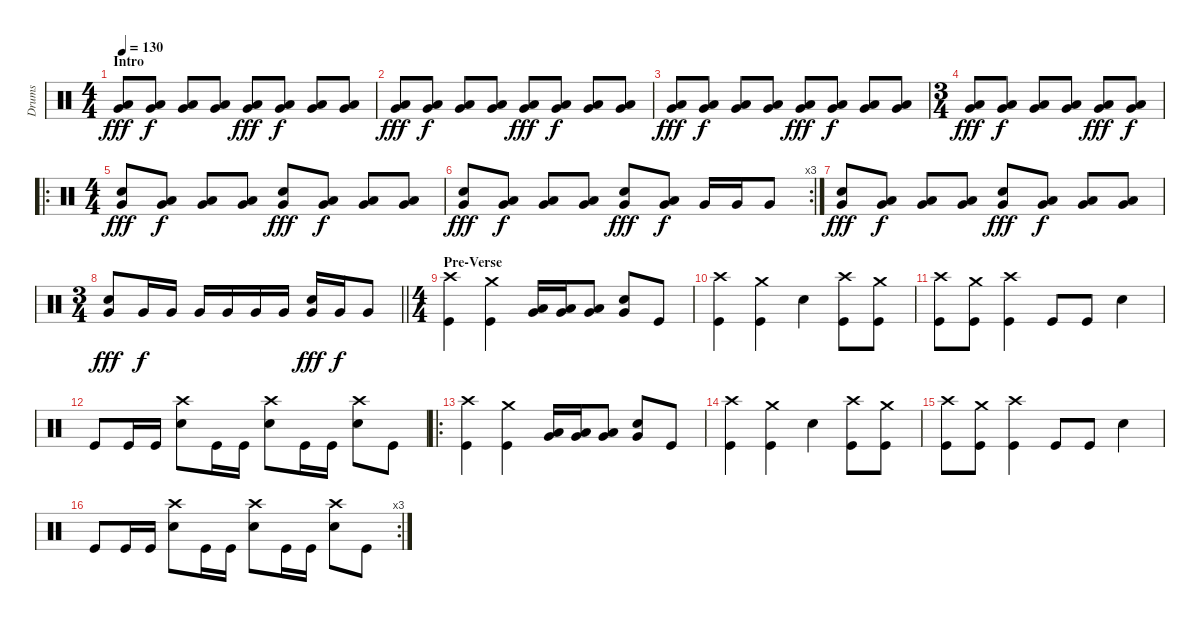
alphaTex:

\track ("Drums" "Drums") {instrument percussion}
\staff {score}
\articulation defaults
\ts (4 4)
\section ("" "Intro")
\tempo 130
\clef neutral
\ks c
("Low Tom (hit)" "Very Low Tom (hit)").8{dy fff} ("Low Tom (hit)" "Very Low Tom (hit)").8{dy f} ("Low Tom (hit)" "Very Low Tom (hit)").8 ("Low Tom (hit)" "Very Low Tom (hit)").8 ("Low Tom (hit)" "Very Low Tom (hit)").8{dy fff} ("Low Tom (hit)" "Very Low Tom (hit)").8{dy f} ("Low Tom (hit)" "Very Low Tom (hit)").8 ("Low Tom (hit)" "Very Low Tom (hit)").8 |
("Low Tom (hit)" "Very Low Tom (hit)").8{dy fff} ("Low Tom (hit)" "Very Low Tom (hit)").8{dy f} ("Low Tom (hit)" "Very Low Tom (hit)").8 ("Low Tom (hit)" "Very Low Tom (hit)").8 ("Low Tom (hit)" "Very Low Tom (hit)").8{dy fff} ("Low Tom (hit)" "Very Low Tom (hit)").8{dy f} ("Low Tom (hit)" "Very Low Tom (hit)").8 ("Low Tom (hit)" "Very Low Tom (hit)").8 |
("Low Tom (hit)" "Very Low Tom (hit)").8{dy fff} ("Low Tom (hit)" "Very Low Tom (hit)").8{dy f} ("Low Tom (hit)" "Very Low Tom (hit)").8 ("Low Tom (hit)" "Very Low Tom (hit)").8 ("Low Tom (hit)" "Very Low Tom (hit)").8{dy fff} ("Low Tom (hit)" "Very Low Tom (hit)").8{dy f} ("Low Tom (hit)" "Very Low Tom (hit)").8 ("Low Tom (hit)" "Very Low Tom (hit)").8 |
\ts (3 4)
("Low Tom (hit)" "Very Low Tom (hit)").8{dy fff} ("Low Tom (hit)" "Very Low Tom (hit)").8{dy f} ("Low Tom (hit)" "Very Low Tom (hit)").8 ("Low Tom (hit)" "Very Low Tom (hit)").8 ("Low Tom (hit)" "Very Low Tom (hit)").8{dy fff} ("Low Tom (hit)" "Very Low Tom (hit)").8{dy f} |
\ro
\ts (4 4)
("Snare (hit) 2" "Very Low Tom (hit)").8{dy fff} ("Low Tom (hit)" "Very Low Tom (hit)").8{dy f} ("Low Tom (hit)" "Very Low Tom (hit)").8 ("Low Tom (hit)" "Very Low Tom (hit)").8 ("Snare (hit) 2" "Very Low Tom (hit)").8{dy fff} ("Low Tom (hit)" "Very Low Tom (hit)").8{dy f} ("Low Tom (hit)" "Very Low Tom (hit)").8 ("Low Tom (hit)" "Very Low Tom (hit)").8 |
\rc 3
("Snare (hit) 2" "Very Low Tom (hit)").8{dy fff} ("Low Tom (hit)" "Very Low Tom (hit)").8{dy f} ("Low Tom (hit)" "Very Low Tom (hit)").8 ("Low Tom (hit)" "Very Low Tom (hit)").8 ("Snare (hit) 2" "Very Low Tom (hit)").8{dy fff} ("Low Tom (hit)" "Very Low Tom (hit)").8{dy f} "Very Low Tom (hit)".16 "Very Low Tom (hit)".16 "Very Low Tom (hit)".8 |
("Snare (hit) 2" "Very Low Tom (hit)").8{dy fff} ("Low Tom (hit)" "Very Low Tom (hit)").8{dy f} ("Low Tom (hit)" "Very Low Tom (hit)").8 ("Low Tom (hit)" "Very Low Tom (hit)").8 ("Snare (hit) 2" "Very Low Tom (hit)").8{dy fff} ("Low Tom (hit)" "Very Low Tom (hit)").8{dy f} ("Low Tom (hit)" "Very Low Tom (hit)").8 ("Low Tom (hit)" "Very Low Tom (hit)").8 |
\ts (3 4)
\barLineRight lightlight
("Snare (hit) 2" "Very Low Tom (hit)").8{dy fff} "Very Low Tom (hit)".16{dy f} "Very Low Tom (hit)".16 "Very Low Tom (hit)".16 "Very Low Tom (hit)".16 "Very Low Tom (hit)".16 "Very Low Tom (hit)".16 ("Snare (hit) 2" "Very Low Tom (hit)").16{dy fff} "Very Low Tom (hit)".16{dy f} "Very Low Tom (hit)".8 |
\ts (4 4)
\section ("" "Pre-Verse")
("Crash high (hit)" "Kick (hit)").4 ("Crash medium (hit)" "Kick (hit)").4 ("Low Tom (hit)" "Very Low Tom (hit)").16 ("Low Tom (hit)" "Very Low Tom (hit)").16 ("Low Tom (hit)" "Very Low Tom (hit)").8 ("Snare (hit) 2" "Very Low Tom (hit)").8 "Kick (hit)".8 |
("Crash high (hit)" "Kick (hit)").4 ("Crash medium (hit)" "Kick (hit)").4 "Snare (hit) 2".4 ("Crash high (hit)" "Kick (hit)").8 ("Crash medium (hit)" "Kick (hit)").8 |
("Crash high (hit)" "Kick (hit)").8 ("Crash medium (hit)" "Kick (hit)").8 ("Crash high (hit)" "Kick (hit)").4 "Kick (hit)".8 "Kick (hit)".8 "Snare (hit) 2".4 |
"Kick (hit)".8 "Kick (hit)".16 "Kick (hit)".16 ("Crash high (hit)" "Snare (hit) 2").8 "Kick (hit)".16 "Kick (hit)".16 ("Crash high (hit)" "Snare (hit) 2").8 "Kick (hit)".16 "Kick (hit)".16 ("Crash high (hit)" "Snare (hit) 2").8 "Kick (hit)".8 |
\ro
("Crash high (hit)" "Kick (hit)").4 ("Crash medium (hit)" "Kick (hit)").4 ("Low Tom (hit)" "Very Low Tom (hit)").16 ("Low Tom (hit)" "Very Low Tom (hit)").16 ("Low Tom (hit)" "Very Low Tom (hit)").8 ("Snare (hit) 2" "Very Low Tom (hit)").8 "Kick (hit)".8 |
("Crash high (hit)" "Kick (hit)").4 ("Crash medium (hit)" "Kick (hit)").4 "Snare (hit) 2".4 ("Crash high (hit)" "Kick (hit)").8 ("Crash medium (hit)" "Kick (hit)").8 |
("Crash high (hit)" "Kick (hit)").8 ("Crash medium (hit)" "Kick (hit)").8 ("Crash high (hit)" "Kick (hit)").4 "Kick (hit)".8 "Kick (hit)".8 "Snare (hit) 2".4 |
\rc 3 "Kick (hit)".8 "Kick (hit)".16 "Kick (hit)".16
("Crash high (hit)" "Snare (hit) 2").8 "Kick (hit)".16 "Kick (hit)".16 ("Crash high (hit)" "Snare (hit) 2").8 "Kick (hit)".16 "Kick (hit)".16 ("Crash high (hit)" "Snare (hit) 2").8 "Kick (hit)".8
